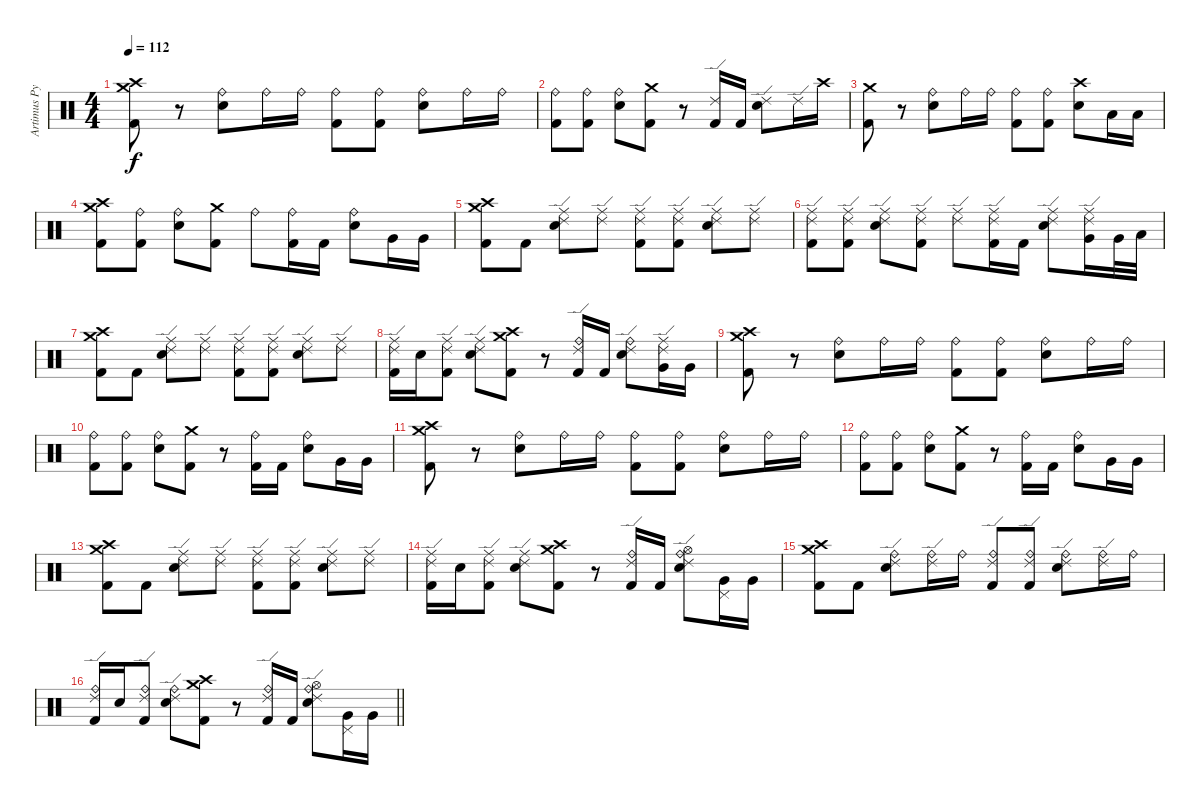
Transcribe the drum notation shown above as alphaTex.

\track ("Artimus Pyle" "Artimus Py") {instrument percussion}
\staff {score}
\articulation defaults
\ts (4 4)
\tempo 112
\clef neutral
\ks c
("Crash medium (hit)" "Crash high (hit)" "Kick (hit) 2").8{dy f} r.8 ("Ride (bell)" "Snare (hit) 2").8 "Ride (bell)".16 "Ride (bell)".16 ("Ride (bell)" "Kick (hit) 2").8 ("Ride (bell)" "Kick (hit) 2").8 ("Ride (bell)" "Snare (hit) 2").8 "Ride (bell)".16 "Ride (bell)".16 |
("Ride (bell)" "Kick (hit) 2").8 ("Ride (bell)" "Kick (hit) 2").8 ("Ride (bell)" "Snare (hit) 2").8 ("Crash medium (hit)" "Kick (hit) 2").8 r.8 ("Ride (edge) 2" "Kick (hit) 2").16 "Kick (hit) 2".16 ("Ride (edge) 2" "Snare (hit) 2").8 "Ride (edge) 2".16 "Crash high (hit)".16 |
("Crash medium (hit)" "Kick (hit) 2").8 r.8 ("Ride (bell)" "Snare (hit) 2").8 "Ride (bell)".16 "Ride (bell)".16 ("Ride (bell)" "Kick (hit) 2").8 ("Ride (bell)" "Kick (hit) 2").8 ("Crash high (hit)" "Snare (hit) 2").8 "Low Floor Tom (hit)".16 "Low Floor Tom (hit)".16 |
("Crash medium (hit)" "Crash high (hit)" "Kick (hit) 2").8 ("Ride (bell)" "Kick (hit) 2").8 ("Ride (bell)" "Snare (hit) 2").8 ("Crash medium (hit)" "Kick (hit) 2").8 "Ride (bell)".8 ("Ride (bell)" "Kick (hit) 2").16 "Kick (hit) 2".16 ("Ride (bell)" "Snare (hit) 2").8 "Very Low Tom (hit)".16 "Very Low Tom (hit)".16 |
("Crash medium (hit)" "Crash high (hit)" "Kick (hit) 2").8 "Kick (hit) 2".8 ("Ride (middle)" "Ride (edge) 2" "Snare (hit) 2").8 ("Ride (middle)" "Ride (edge) 2").8 ("Ride (middle)" "Ride (edge) 2" "Kick (hit) 2").8 ("Ride (middle)" "Ride (edge) 2" "Kick (hit) 2").8 ("Ride (middle)" "Ride (edge) 2" "Snare (hit) 2").8 ("Ride (middle)" "Ride (edge) 2").8 |
("Ride (middle)" "Ride (edge) 2" "Kick (hit) 2").8 ("Ride (middle)" "Ride (edge) 2" "Kick (hit) 2").8 ("Ride (middle)" "Ride (edge) 2" "Snare (hit) 2").8 ("Ride (middle)" "Ride (edge) 2" "Kick (hit) 2").8 ("Ride (middle)" "Ride (edge) 2").8 ("Ride (middle)" "Ride (edge) 2" "Kick (hit) 2").16 "Kick (hit) 2".16 ("Ride (middle)" "Ride (edge) 2" "Snare (hit) 2").8 ("Ride (middle)" "Ride (edge) 2" "Very Low Tom (hit)").16 "Very Low Tom (hit)".32 "Low Floor Tom (hit)".32 |
("Crash medium (hit)" "Crash high (hit)" "Kick (hit) 2").8 "Kick (hit) 2".8 ("Ride (middle)" "Ride (edge) 2" "Snare (hit) 2").8 ("Ride (middle)" "Ride (edge) 2").8 ("Ride (middle)" "Ride (edge) 2" "Kick (hit) 2").8 ("Ride (middle)" "Ride (edge) 2" "Kick (hit) 2").8 ("Ride (middle)" "Ride (edge) 2" "Snare (hit) 2").8 ("Ride (middle)" "Ride (edge) 2").8 |
("Ride (middle)" "Ride (edge) 2" "Kick (hit) 2").16 "Snare (hit) 2".16 ("Ride (middle)" "Ride (edge) 2" "Kick (hit) 2").8 ("Ride (middle)" "Ride (edge) 2" "Snare (hit) 2").8 ("Crash medium (hit)" "Crash high (hit)" "Kick (hit) 2").8 r.8 ("Ride (bell)" "Ride (edge) 2" "Kick (hit) 2").16 "Kick (hit) 2".16 ("Ride (bell)" "Ride (edge) 2" "Snare (hit) 2").8 ("Ride (middle)" "Ride (edge) 2" "Very Low Tom (hit)").16 "Very Low Tom (hit)".16 |
("Crash medium (hit)" "Crash high (hit)" "Kick (hit) 2").8 r.8 ("Ride (bell)" "Snare (hit) 2").8 "Ride (bell)".16 "Ride (bell)".16 ("Ride (bell)" "Kick (hit) 2").8 ("Ride (bell)" "Kick (hit) 2").8 ("Ride (bell)" "Snare (hit) 2").8 "Ride (bell)".16 "Ride (bell)".16 |
("Ride (bell)" "Kick (hit) 2").8 ("Ride (bell)" "Kick (hit) 2").8 ("Ride (bell)" "Snare (hit) 2").8 ("Crash medium (hit)" "Kick (hit) 2").8 r.8 ("Ride (bell)" "Kick (hit) 2").16 "Kick (hit) 2".16 ("Ride (bell)" "Snare (hit) 2").8 "Very Low Tom (hit)".16 "Very Low Tom (hit)".16 |
("Crash medium (hit)" "Crash high (hit)" "Kick (hit) 2").8 r.8 ("Ride (bell)" "Snare (hit) 2").8 "Ride (bell)".16 "Ride (bell)".16 ("Ride (bell)" "Kick (hit) 2").8 ("Ride (bell)" "Kick (hit) 2").8 ("Ride (bell)" "Snare (hit) 2").8 "Ride (bell)".16 "Ride (bell)".16 |
("Ride (bell)" "Kick (hit) 2").8 ("Ride (bell)" "Kick (hit) 2").8 ("Ride (bell)" "Snare (hit) 2").8 ("Crash medium (hit)" "Kick (hit) 2").8 r.8 ("Ride (bell)" "Kick (hit) 2").16 "Kick (hit) 2".16 ("Ride (bell)" "Snare (hit) 2").8 "Very Low Tom (hit)".16 "Very Low Tom (hit)".16 |
("Crash medium (hit)" "Crash high (hit)" "Kick (hit) 2").8 "Kick (hit) 2".8 ("Ride (middle)" "Ride (edge) 2" "Snare (hit) 2").8 ("Ride (middle)" "Ride (edge) 2").8 ("Ride (middle)" "Ride (edge) 2" "Kick (hit) 2").8 ("Ride (middle)" "Ride (edge) 2" "Kick (hit) 2").8 ("Ride (middle)" "Ride (edge) 2" "Snare (hit) 2").8 ("Ride (middle)" "Ride (edge) 2").8 |
("Ride (middle)" "Ride (edge) 2" "Kick (hit) 2").16 "Snare (hit) 2".16 ("Ride (middle)" "Ride (edge) 2" "Kick (hit) 2").8 ("Ride (middle)" "Ride (edge) 2" "Snare (hit) 2").8 ("Crash medium (hit)" "Crash high (hit)" "Kick (hit) 2").8 r.8 ("Ride (bell)" "Ride (edge) 2" "Kick (hit) 2").16 "Kick (hit) 2".16 ("Ride (bell)" "Ride (edge) 2" "Snare (hit) 2" "Hi-Hat (open)").8 ("Pedal Hi-Hat (hit)" "Very Low Tom (hit)").16 "Very Low Tom (hit)".16 |
("Crash medium (hit)" "Crash high (hit)" "Kick (hit) 2").8 "Kick (hit) 2".8 ("Ride (bell)" "Ride (edge) 2" "Snare (hit) 2").8 ("Ride (bell)" "Ride (edge) 2").16 "Ride (bell)".16 ("Ride (bell)" "Ride (edge) 2" "Kick (hit) 2").8 ("Ride (bell)" "Ride (edge) 2" "Kick (hit) 2").8 ("Ride (bell)" "Ride (edge) 2" "Snare (hit) 2").8 ("Ride (bell)" "Ride (edge) 2").16 "Ride (bell)".16 |
\barLineRight lightlight
("Ride (bell)" "Ride (edge) 2" "Kick (hit) 2").16 "Snare (hit) 2".16 ("Ride (bell)" "Ride (edge) 2" "Kick (hit) 2").8 ("Ride (bell)" "Ride (edge) 2" "Snare (hit) 2").8 ("Crash medium (hit)" "Crash high (hit)" "Kick (hit) 2").8 r.8 ("Ride (bell)" "Ride (edge) 2" "Kick (hit) 2").16 "Kick (hit) 2".16 ("Ride (bell)" "Ride (edge) 2" "Snare (hit) 2" "Hi-Hat (open)").8 ("Pedal Hi-Hat (hit)" "Very Low Tom (hit)").16 "Very Low Tom (hit)".16
